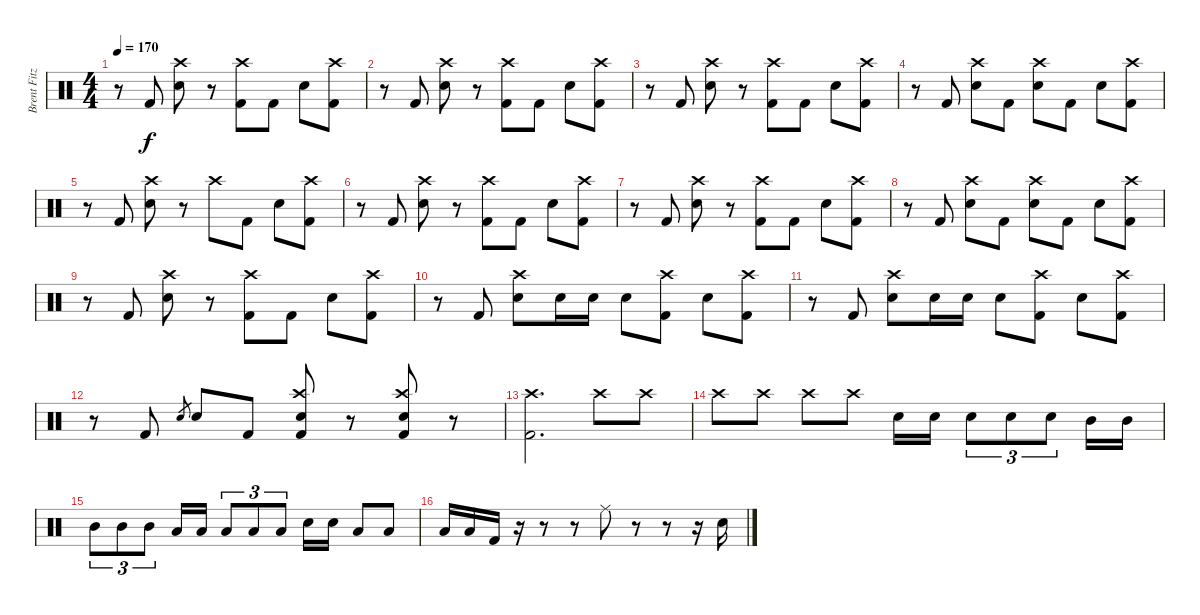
\track ("Brent Fitz" "Brent Fitz") {instrument percussion}
\staff {score}
\articulation defaults
\ts (4 4)
\tempo 170
\clef neutral
\ks c
r.8{dy f} "Kick (hit) 2".8 ("Crash high (hit)" "Electric Snare (hit)").8 r.8 ("Crash high (hit)" "Kick (hit) 2").8 "Kick (hit) 2".8 "Electric Snare (hit)".8 ("Crash high (hit)" "Kick (hit) 2").8 |
r.8 "Kick (hit) 2".8 ("Crash high (hit)" "Electric Snare (hit)").8 r.8 ("Crash high (hit)" "Kick (hit) 2").8 "Kick (hit) 2".8 "Electric Snare (hit)".8 ("Crash high (hit)" "Kick (hit) 2").8 |
r.8 "Kick (hit) 2".8 ("Crash high (hit)" "Electric Snare (hit)").8 r.8 ("Crash high (hit)" "Kick (hit) 2").8 "Kick (hit) 2".8 "Electric Snare (hit)".8 ("Crash high (hit)" "Kick (hit) 2").8 |
r.8 "Kick (hit) 2".8 ("Crash high (hit)" "Electric Snare (hit)").8 "Kick (hit) 2".8 ("Crash high (hit)" "Electric Snare (hit)").8 "Kick (hit) 2".8 "Electric Snare (hit)".8 ("Crash high (hit)" "Kick (hit) 2").8 |
r.8 "Kick (hit) 2".8 ("Crash high (hit)" "Electric Snare (hit)").8 r.8 "Crash high (hit)".8 "Kick (hit) 2".8 "Electric Snare (hit)".8 ("Crash high (hit)" "Kick (hit) 2").8 |
r.8 "Kick (hit) 2".8 ("Crash high (hit)" "Electric Snare (hit)").8 r.8 ("Crash high (hit)" "Kick (hit) 2").8 "Kick (hit) 2".8 "Electric Snare (hit)".8 ("Crash high (hit)" "Kick (hit) 2").8 |
r.8 "Kick (hit) 2".8 ("Crash high (hit)" "Electric Snare (hit)").8 r.8 ("Crash high (hit)" "Kick (hit) 2").8 "Kick (hit) 2".8 "Electric Snare (hit)".8 ("Crash high (hit)" "Kick (hit) 2").8 |
r.8 "Kick (hit) 2".8 ("Crash high (hit)" "Electric Snare (hit)").8 "Kick (hit) 2".8 ("Crash high (hit)" "Electric Snare (hit)").8 "Kick (hit) 2".8 "Electric Snare (hit)".8 ("Crash high (hit)" "Kick (hit) 2").8 |
r.8 "Kick (hit) 2".8 ("Crash high (hit)" "Electric Snare (hit)").8 r.8 ("Crash high (hit)" "Kick (hit) 2").8 "Kick (hit) 2".8 "Electric Snare (hit)".8 ("Crash high (hit)" "Kick (hit) 2").8 |
r.8 "Kick (hit) 2".8 ("Crash high (hit)" "Electric Snare (hit)").8 "Electric Snare (hit)".16 "Electric Snare (hit)".16 "Electric Snare (hit)".8 ("Crash high (hit)" "Kick (hit) 2").8 "Electric Snare (hit)".8 ("Crash high (hit)" "Kick (hit) 2").8 |
r.8 "Kick (hit) 2".8 ("Crash high (hit)" "Electric Snare (hit)").8 "Electric Snare (hit)".16 "Electric Snare (hit)".16 "Electric Snare (hit)".8 ("Crash high (hit)" "Kick (hit) 2").8 "Electric Snare (hit)".8 ("Crash high (hit)" "Kick (hit) 2").8 |
r.8 "Kick (hit) 2".8 "Electric Snare (hit)".8{gr} "Electric Snare (hit)".8 "Kick (hit) 2".8 ("Crash high (hit)" "Electric Snare (hit)" "Kick (hit) 2").8 r.8 ("Crash high (hit)" "Electric Snare (hit)" "Kick (hit) 2").8 r.8 |
("Crash high (hit)" "Kick (hit) 2").2{d} "Crash high (hit)".8 "Crash high (hit)".8 |
"Crash high (hit)".8 "Crash high (hit)".8 "Crash high (hit)".8 "Crash high (hit)".8 "Electric Snare (hit)".16 "Electric Snare (hit)".16 "Electric Snare (hit)".8{tu (3 2)} "Electric Snare (hit)".8{tu (3 2)} "Electric Snare (hit)".8{tu (3 2)} "Mid Tom (hit)".16 "Mid Tom (hit)".16 |
"Mid Tom (hit)".8{tu (3 2)} "Mid Tom (hit)".8{tu (3 2)} "Mid Tom (hit)".8{tu (3 2)} "Low Tom (hit)".16 "Low Tom (hit)".16 "Low Tom (hit)".8{tu (3 2)} "Low Tom (hit)".8{tu (3 2)} "Low Tom (hit)".8{tu (3 2)} "Electric Snare (hit)".16 "Electric Snare (hit)".16 "Low Tom (hit)".8 "Low Tom (hit)".8 |
"Low Tom (hit)".16 "Low Tom (hit)".16 "Kick (hit) 2".16 r.16 r.8 r.8 "Ride (middle)".8 r.8 r.8 r.16 "Electric Snare (hit)".16
